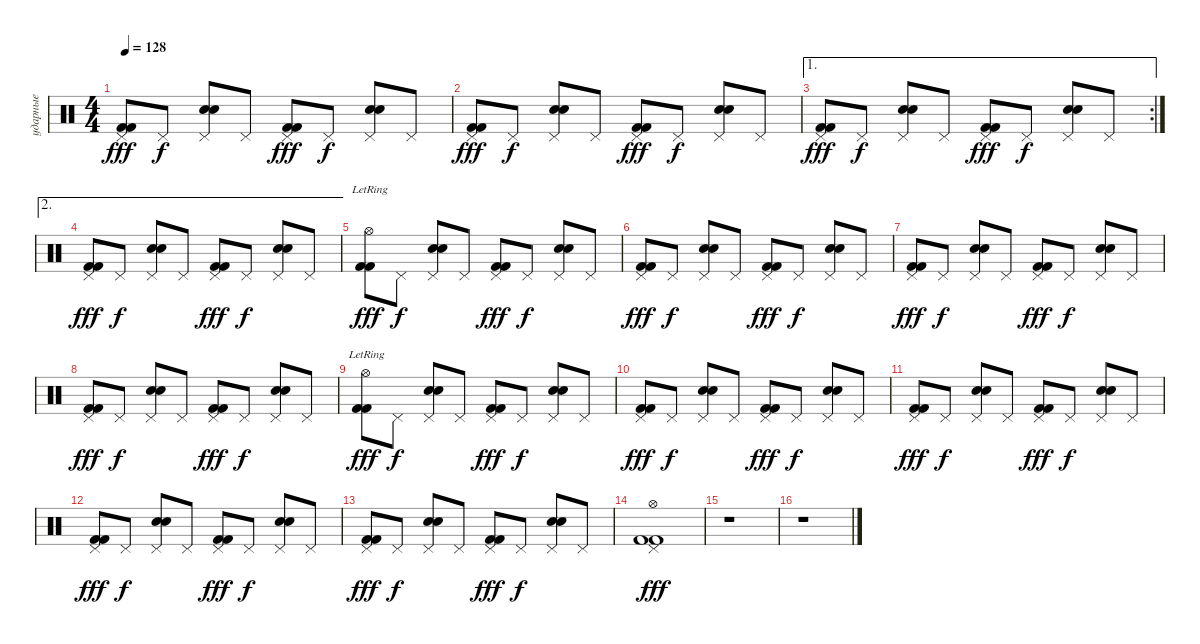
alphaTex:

\track ("ударные" "ударные") {instrument percussion}
\staff {score}
\articulation defaults
\ts (4 4)
\tempo 128
\clef neutral
\ks aminor
("Kick (hit) 2" "Kick (hit) 2" "Pedal Hi-Hat (hit)").8{dy fff} "Pedal Hi-Hat (hit)".8{dy f} ("Electric Snare (hit)" "Electric Snare (hit)" "Pedal Hi-Hat (hit)").8 "Pedal Hi-Hat (hit)".8 ("Kick (hit) 2" "Kick (hit) 2" "Pedal Hi-Hat (hit)").8{dy fff} "Pedal Hi-Hat (hit)".8{dy f} ("Electric Snare (hit)" "Electric Snare (hit)" "Pedal Hi-Hat (hit)").8 "Pedal Hi-Hat (hit)".8 |
("Kick (hit) 2" "Kick (hit) 2" "Pedal Hi-Hat (hit)").8{dy fff} "Pedal Hi-Hat (hit)".8{dy f} ("Electric Snare (hit)" "Electric Snare (hit)" "Pedal Hi-Hat (hit)").8 "Pedal Hi-Hat (hit)".8 ("Kick (hit) 2" "Kick (hit) 2" "Pedal Hi-Hat (hit)").8{dy fff} "Pedal Hi-Hat (hit)".8{dy f} ("Electric Snare (hit)" "Electric Snare (hit)" "Pedal Hi-Hat (hit)").8 "Pedal Hi-Hat (hit)".8 |
\ae 1
\rc 2
("Kick (hit) 2" "Kick (hit) 2" "Pedal Hi-Hat (hit)").8{dy fff} "Pedal Hi-Hat (hit)".8{dy f} ("Electric Snare (hit)" "Electric Snare (hit)" "Pedal Hi-Hat (hit)").8 "Pedal Hi-Hat (hit)".8 ("Kick (hit) 2" "Kick (hit) 2" "Pedal Hi-Hat (hit)").8{dy fff} "Pedal Hi-Hat (hit)".8{dy f} ("Electric Snare (hit)" "Electric Snare (hit)" "Pedal Hi-Hat (hit)").8 "Pedal Hi-Hat (hit)".8 |
\ae 2
("Kick (hit) 2" "Kick (hit) 2" "Pedal Hi-Hat (hit)").8{dy fff} "Pedal Hi-Hat (hit)".8{dy f} ("Electric Snare (hit)" "Electric Snare (hit)" "Pedal Hi-Hat (hit)").8 "Pedal Hi-Hat (hit)".8 ("Kick (hit) 2" "Kick (hit) 2" "Pedal Hi-Hat (hit)").8{dy fff} "Pedal Hi-Hat (hit)".8{dy f} ("Electric Snare (hit)" "Electric Snare (hit)" "Pedal Hi-Hat (hit)").8 "Pedal Hi-Hat (hit)".8 |
("Kick (hit) 2" "Kick (hit) 2" "Hi-Hat (open)"{lr}).8{dy fff} "Pedal Hi-Hat (hit)".8{dy f} ("Electric Snare (hit)" "Electric Snare (hit)" "Pedal Hi-Hat (hit)").8 "Pedal Hi-Hat (hit)".8 ("Kick (hit) 2" "Kick (hit) 2" "Pedal Hi-Hat (hit)").8{dy fff} "Pedal Hi-Hat (hit)".8{dy f} ("Electric Snare (hit)" "Electric Snare (hit)" "Pedal Hi-Hat (hit)").8 "Pedal Hi-Hat (hit)".8 |
("Kick (hit) 2" "Kick (hit) 2" "Pedal Hi-Hat (hit)").8{dy fff} "Pedal Hi-Hat (hit)".8{dy f} ("Electric Snare (hit)" "Electric Snare (hit)" "Pedal Hi-Hat (hit)").8 "Pedal Hi-Hat (hit)".8 ("Kick (hit) 2" "Kick (hit) 2" "Pedal Hi-Hat (hit)").8{dy fff} "Pedal Hi-Hat (hit)".8{dy f} ("Electric Snare (hit)" "Electric Snare (hit)" "Pedal Hi-Hat (hit)").8 "Pedal Hi-Hat (hit)".8 |
("Kick (hit) 2" "Kick (hit) 2" "Pedal Hi-Hat (hit)").8{dy fff} "Pedal Hi-Hat (hit)".8{dy f} ("Electric Snare (hit)" "Electric Snare (hit)" "Pedal Hi-Hat (hit)").8 "Pedal Hi-Hat (hit)".8 ("Kick (hit) 2" "Kick (hit) 2" "Pedal Hi-Hat (hit)").8{dy fff} "Pedal Hi-Hat (hit)".8{dy f} ("Electric Snare (hit)" "Electric Snare (hit)" "Pedal Hi-Hat (hit)").8 "Pedal Hi-Hat (hit)".8 |
("Kick (hit) 2" "Kick (hit) 2" "Pedal Hi-Hat (hit)").8{dy fff} "Pedal Hi-Hat (hit)".8{dy f} ("Electric Snare (hit)" "Electric Snare (hit)" "Pedal Hi-Hat (hit)").8 "Pedal Hi-Hat (hit)".8 ("Kick (hit) 2" "Kick (hit) 2" "Pedal Hi-Hat (hit)").8{dy fff} "Pedal Hi-Hat (hit)".8{dy f} ("Electric Snare (hit)" "Electric Snare (hit)" "Pedal Hi-Hat (hit)").8 "Pedal Hi-Hat (hit)".8 |
("Kick (hit) 2" "Kick (hit) 2" "Hi-Hat (open)"{lr}).8{dy fff} "Pedal Hi-Hat (hit)".8{dy f} ("Electric Snare (hit)" "Electric Snare (hit)" "Pedal Hi-Hat (hit)").8 "Pedal Hi-Hat (hit)".8 ("Kick (hit) 2" "Kick (hit) 2" "Pedal Hi-Hat (hit)").8{dy fff} "Pedal Hi-Hat (hit)".8{dy f} ("Electric Snare (hit)" "Electric Snare (hit)" "Pedal Hi-Hat (hit)").8 "Pedal Hi-Hat (hit)".8 |
("Kick (hit) 2" "Kick (hit) 2" "Pedal Hi-Hat (hit)").8{dy fff} "Pedal Hi-Hat (hit)".8{dy f} ("Electric Snare (hit)" "Electric Snare (hit)" "Pedal Hi-Hat (hit)").8 "Pedal Hi-Hat (hit)".8 ("Kick (hit) 2" "Kick (hit) 2" "Pedal Hi-Hat (hit)").8{dy fff} "Pedal Hi-Hat (hit)".8{dy f} ("Electric Snare (hit)" "Electric Snare (hit)" "Pedal Hi-Hat (hit)").8 "Pedal Hi-Hat (hit)".8 |
("Kick (hit) 2" "Kick (hit) 2" "Pedal Hi-Hat (hit)").8{dy fff} "Pedal Hi-Hat (hit)".8{dy f} ("Electric Snare (hit)" "Electric Snare (hit)" "Pedal Hi-Hat (hit)").8 "Pedal Hi-Hat (hit)".8 ("Kick (hit) 2" "Kick (hit) 2" "Pedal Hi-Hat (hit)").8{dy fff} "Pedal Hi-Hat (hit)".8{dy f} ("Electric Snare (hit)" "Electric Snare (hit)" "Pedal Hi-Hat (hit)").8 "Pedal Hi-Hat (hit)".8 |
("Kick (hit) 2" "Kick (hit) 2" "Pedal Hi-Hat (hit)").8{dy fff} "Pedal Hi-Hat (hit)".8{dy f} ("Electric Snare (hit)" "Electric Snare (hit)" "Pedal Hi-Hat (hit)").8 "Pedal Hi-Hat (hit)".8 ("Kick (hit) 2" "Kick (hit) 2" "Pedal Hi-Hat (hit)").8{dy fff} "Pedal Hi-Hat (hit)".8{dy f} ("Electric Snare (hit)" "Electric Snare (hit)" "Pedal Hi-Hat (hit)").8 "Pedal Hi-Hat (hit)".8 |
("Kick (hit) 2" "Kick (hit) 2" "Pedal Hi-Hat (hit)").8{dy fff} "Pedal Hi-Hat (hit)".8{dy f} ("Electric Snare (hit)" "Electric Snare (hit)" "Pedal Hi-Hat (hit)").8 "Pedal Hi-Hat (hit)".8 ("Kick (hit) 2" "Kick (hit) 2" "Pedal Hi-Hat (hit)").8{dy fff} "Pedal Hi-Hat (hit)".8{dy f} ("Electric Snare (hit)" "Electric Snare (hit)" "Pedal Hi-Hat (hit)").8 "Pedal Hi-Hat (hit)".8 |
("Kick (hit) 2" "Hi-Hat (open)" "Kick (hit) 2" "Pedal Hi-Hat (hit)").1{dy fff} |
r.1 |
r.1
